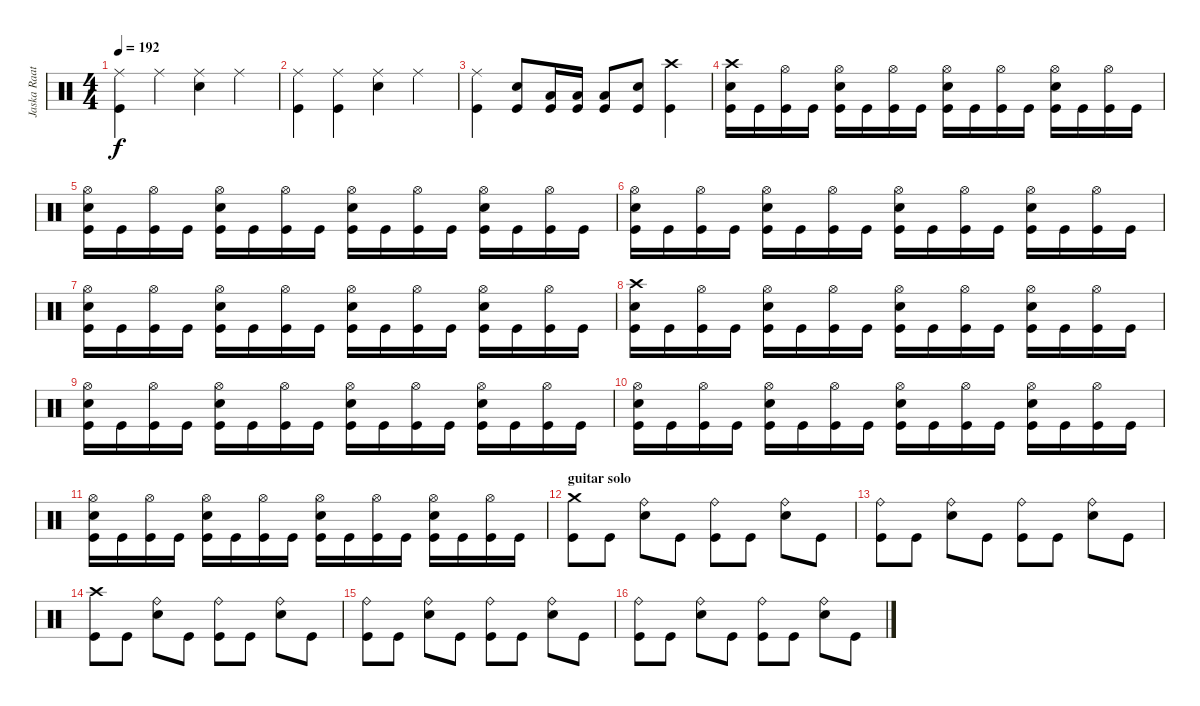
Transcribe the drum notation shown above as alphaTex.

\track ("Jaska Raatikainen" "Jaska Raat") {instrument percussion}
\staff {score}
\articulation defaults
\ts (4 4)
\tempo 192
\clef neutral
\ks c
("Ride (middle)" "Kick (hit)").4{dy f} "Ride (middle)".4 ("Ride (middle)" "Electric Snare (hit)").4 "Ride (middle)".4 |
("Ride (middle)" "Kick (hit)").4 ("Ride (middle)" "Kick (hit)").4 ("Ride (middle)" "Electric Snare (hit)").4 "Ride (middle)".4 |
("Ride (middle)" "Kick (hit)").4 ("Electric Snare (hit)" "Kick (hit)").8 ("Low Tom (hit)" "Kick (hit)").16 ("Low Tom (hit)" "Kick (hit)").16 ("Low Tom (hit)" "Kick (hit)").8 ("Snare (hit) 2" "Kick (hit)").8 ("Crash high (hit)" "Kick (hit)").4 |
("Crash high (hit)" "Electric Snare (hit)" "Kick (hit)").16 "Kick (hit)".16 ("Hi-Hat (open)" "Kick (hit)").16 "Kick (hit)".16 ("Hi-Hat (open)" "Electric Snare (hit)" "Kick (hit)").16 "Kick (hit)".16 ("Hi-Hat (open)" "Kick (hit)").16 "Kick (hit)".16 ("Hi-Hat (open)" "Electric Snare (hit)" "Kick (hit)").16 "Kick (hit)".16 ("Hi-Hat (open)" "Kick (hit)").16 "Kick (hit)".16 ("Hi-Hat (open)" "Electric Snare (hit)" "Kick (hit)").16 "Kick (hit)".16 ("Hi-Hat (open)" "Kick (hit)").16 "Kick (hit)".16 |
("Hi-Hat (open)" "Electric Snare (hit)" "Kick (hit)").16 "Kick (hit)".16 ("Hi-Hat (open)" "Kick (hit)").16 "Kick (hit)".16 ("Hi-Hat (open)" "Electric Snare (hit)" "Kick (hit)").16 "Kick (hit)".16 ("Hi-Hat (open)" "Kick (hit)").16 "Kick (hit)".16 ("Hi-Hat (open)" "Electric Snare (hit)" "Kick (hit)").16 "Kick (hit)".16 ("Hi-Hat (open)" "Kick (hit)").16 "Kick (hit)".16 ("Hi-Hat (open)" "Electric Snare (hit)" "Kick (hit)").16 "Kick (hit)".16 ("Hi-Hat (open)" "Kick (hit)").16 "Kick (hit)".16 |
("Hi-Hat (open)" "Electric Snare (hit)" "Kick (hit)").16 "Kick (hit)".16 ("Hi-Hat (open)" "Kick (hit)").16 "Kick (hit)".16 ("Hi-Hat (open)" "Electric Snare (hit)" "Kick (hit)").16 "Kick (hit)".16 ("Hi-Hat (open)" "Kick (hit)").16 "Kick (hit)".16 ("Hi-Hat (open)" "Electric Snare (hit)" "Kick (hit)").16 "Kick (hit)".16 ("Hi-Hat (open)" "Kick (hit)").16 "Kick (hit)".16 ("Hi-Hat (open)" "Electric Snare (hit)" "Kick (hit)").16 "Kick (hit)".16 ("Hi-Hat (open)" "Kick (hit)").16 "Kick (hit)".16 |
("Hi-Hat (open)" "Electric Snare (hit)" "Kick (hit)").16 "Kick (hit)".16 ("Hi-Hat (open)" "Kick (hit)").16 "Kick (hit)".16 ("Hi-Hat (open)" "Electric Snare (hit)" "Kick (hit)").16 "Kick (hit)".16 ("Hi-Hat (open)" "Kick (hit)").16 "Kick (hit)".16 ("Hi-Hat (open)" "Electric Snare (hit)" "Kick (hit)").16 "Kick (hit)".16 ("Hi-Hat (open)" "Kick (hit)").16 "Kick (hit)".16 ("Hi-Hat (open)" "Electric Snare (hit)" "Kick (hit)").16 "Kick (hit)".16 ("Hi-Hat (open)" "Kick (hit)").16 "Kick (hit)".16 |
("Crash high (hit)" "Electric Snare (hit)" "Kick (hit)").16 "Kick (hit)".16 ("Hi-Hat (open)" "Kick (hit)").16 "Kick (hit)".16 ("Hi-Hat (open)" "Electric Snare (hit)" "Kick (hit)").16 "Kick (hit)".16 ("Hi-Hat (open)" "Kick (hit)").16 "Kick (hit)".16 ("Hi-Hat (open)" "Electric Snare (hit)" "Kick (hit)").16 "Kick (hit)".16 ("Hi-Hat (open)" "Kick (hit)").16 "Kick (hit)".16 ("Hi-Hat (open)" "Electric Snare (hit)" "Kick (hit)").16 "Kick (hit)".16 ("Hi-Hat (open)" "Kick (hit)").16 "Kick (hit)".16 |
("Hi-Hat (open)" "Electric Snare (hit)" "Kick (hit)").16 "Kick (hit)".16 ("Hi-Hat (open)" "Kick (hit)").16 "Kick (hit)".16 ("Hi-Hat (open)" "Electric Snare (hit)" "Kick (hit)").16 "Kick (hit)".16 ("Hi-Hat (open)" "Kick (hit)").16 "Kick (hit)".16 ("Hi-Hat (open)" "Electric Snare (hit)" "Kick (hit)").16 "Kick (hit)".16 ("Hi-Hat (open)" "Kick (hit)").16 "Kick (hit)".16 ("Hi-Hat (open)" "Electric Snare (hit)" "Kick (hit)").16 "Kick (hit)".16 ("Hi-Hat (open)" "Kick (hit)").16 "Kick (hit)".16 |
("Hi-Hat (open)" "Electric Snare (hit)" "Kick (hit)").16 "Kick (hit)".16 ("Hi-Hat (open)" "Kick (hit)").16 "Kick (hit)".16 ("Hi-Hat (open)" "Electric Snare (hit)" "Kick (hit)").16 "Kick (hit)".16 ("Hi-Hat (open)" "Kick (hit)").16 "Kick (hit)".16 ("Hi-Hat (open)" "Electric Snare (hit)" "Kick (hit)").16 "Kick (hit)".16 ("Hi-Hat (open)" "Kick (hit)").16 "Kick (hit)".16 ("Hi-Hat (open)" "Electric Snare (hit)" "Kick (hit)").16 "Kick (hit)".16 ("Hi-Hat (open)" "Kick (hit)").16 "Kick (hit)".16 |
("Hi-Hat (open)" "Electric Snare (hit)" "Kick (hit)").16 "Kick (hit)".16 ("Hi-Hat (open)" "Kick (hit)").16 "Kick (hit)".16 ("Hi-Hat (open)" "Electric Snare (hit)" "Kick (hit)").16 "Kick (hit)".16 ("Hi-Hat (open)" "Kick (hit)").16 "Kick (hit)".16 ("Hi-Hat (open)" "Electric Snare (hit)" "Kick (hit)").16 "Kick (hit)".16 ("Hi-Hat (open)" "Kick (hit)").16 "Kick (hit)".16 ("Hi-Hat (open)" "Electric Snare (hit)" "Kick (hit)").16 "Kick (hit)".16 ("Hi-Hat (open)" "Kick (hit)").16 "Kick (hit)".16 |
\section ("" "guitar solo")
("Crash medium (hit)" "Kick (hit)").8 "Kick (hit)".8 ("Ride (bell)" "Electric Snare (hit)").8 "Kick (hit)".8 ("Ride (bell)" "Kick (hit)").8 "Kick (hit)".8 ("Ride (bell)" "Electric Snare (hit)").8 "Kick (hit)".8 |
("Ride (bell)" "Kick (hit)").8 "Kick (hit)".8 ("Ride (bell)" "Electric Snare (hit)").8 "Kick (hit)".8 ("Ride (bell)" "Kick (hit)").8 "Kick (hit)".8 ("Ride (bell)" "Electric Snare (hit)").8 "Kick (hit)".8 |
("Crash high (hit)" "Kick (hit)").8 "Kick (hit)".8 ("Ride (bell)" "Electric Snare (hit)").8 "Kick (hit)".8 ("Ride (bell)" "Kick (hit)").8 "Kick (hit)".8 ("Ride (bell)" "Electric Snare (hit)").8 "Kick (hit)".8 |
("Ride (bell)" "Kick (hit)").8 "Kick (hit)".8 ("Ride (bell)" "Electric Snare (hit)").8 "Kick (hit)".8 ("Ride (bell)" "Kick (hit)").8 "Kick (hit)".8 ("Ride (bell)" "Electric Snare (hit)").8 "Kick (hit)".8 |
("Ride (bell)" "Kick (hit)").8 "Kick (hit)".8 ("Ride (bell)" "Electric Snare (hit)").8 "Kick (hit)".8 ("Ride (bell)" "Kick (hit)").8 "Kick (hit)".8 ("Ride (bell)" "Electric Snare (hit)").8 "Kick (hit)".8
